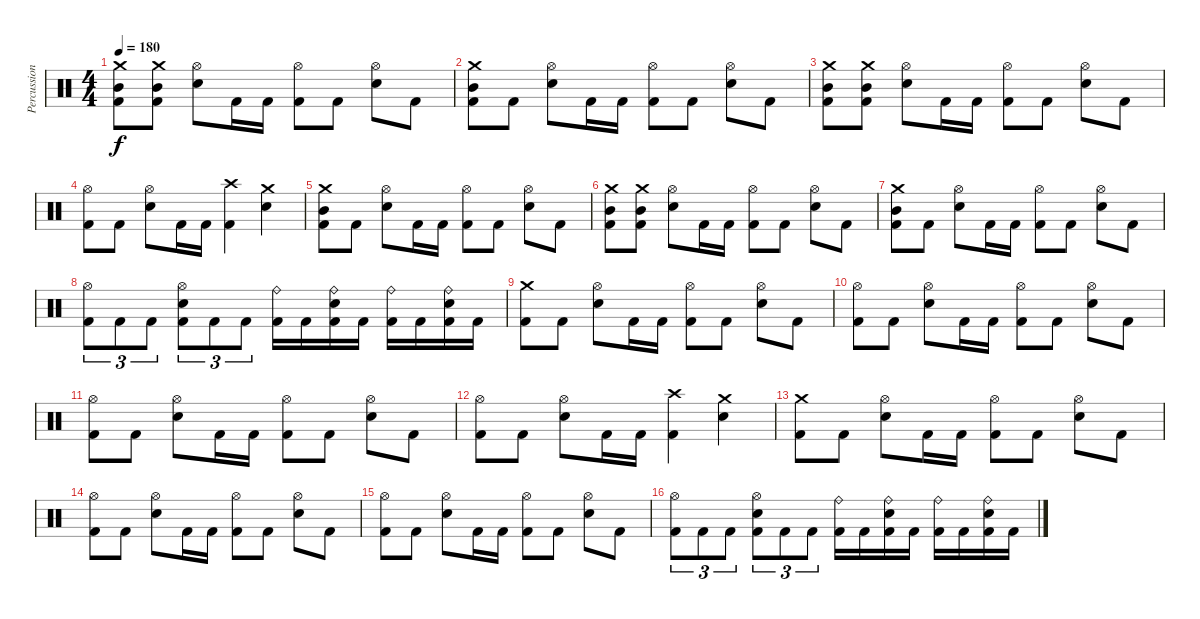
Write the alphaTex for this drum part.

\track ("Percussions" "Percussion") {instrument percussion}
\staff {score}
\articulation defaults
\ts (4 4)
\tempo 180
\clef neutral
\ks c
("Kick (hit) 2" "Mid Tom (hit)" "Crash medium (hit)").8{dy f} ("Kick (hit) 2" "Mid Tom (hit)" "Crash medium (hit)").8 ("Electric Snare (hit)" "Hi-Hat (open)").8 "Kick (hit) 2".16 "Kick (hit) 2".16 ("Kick (hit) 2" "Hi-Hat (open)").8 "Kick (hit) 2".8 ("Electric Snare (hit)" "Hi-Hat (open)").8 "Kick (hit) 2".8 |
("Kick (hit) 2" "Mid Tom (hit)" "Crash medium (hit)").8 "Kick (hit) 2".8 ("Electric Snare (hit)" "Hi-Hat (open)").8 "Kick (hit) 2".16 "Kick (hit) 2".16 ("Kick (hit) 2" "Hi-Hat (open)").8 "Kick (hit) 2".8 ("Electric Snare (hit)" "Hi-Hat (open)").8 "Kick (hit) 2".8 |
("Kick (hit) 2" "Mid Tom (hit)" "Crash medium (hit)").8 ("Kick (hit) 2" "Mid Tom (hit)" "Crash medium (hit)").8 ("Electric Snare (hit)" "Hi-Hat (open)").8 "Kick (hit) 2".16 "Kick (hit) 2".16 ("Kick (hit) 2" "Hi-Hat (open)").8 "Kick (hit) 2".8 ("Electric Snare (hit)" "Hi-Hat (open)").8 "Kick (hit) 2".8 |
("Kick (hit) 2" "Hi-Hat (open)").8 "Kick (hit) 2".8 ("Electric Snare (hit)" "Hi-Hat (open)").8 "Kick (hit) 2".16 "Kick (hit) 2".16 ("Kick (hit) 2" "Crash high (hit)").4 ("Electric Snare (hit)" "Crash medium (hit)").4 |
("Kick (hit) 2" "Mid Tom (hit)" "Crash medium (hit)").8 "Kick (hit) 2".8 ("Electric Snare (hit)" "Hi-Hat (open)").8 "Kick (hit) 2".16 "Kick (hit) 2".16 ("Kick (hit) 2" "Hi-Hat (open)").8 "Kick (hit) 2".8 ("Electric Snare (hit)" "Hi-Hat (open)").8 "Kick (hit) 2".8 |
("Kick (hit) 2" "Mid Tom (hit)" "Crash medium (hit)").8 ("Kick (hit) 2" "Mid Tom (hit)" "Crash medium (hit)").8 ("Electric Snare (hit)" "Hi-Hat (open)").8 "Kick (hit) 2".16 "Kick (hit) 2".16 ("Kick (hit) 2" "Hi-Hat (open)").8 "Kick (hit) 2".8 ("Electric Snare (hit)" "Hi-Hat (open)").8 "Kick (hit) 2".8 |
("Kick (hit) 2" "Mid Tom (hit)" "Crash medium (hit)").8 "Kick (hit) 2".8 ("Electric Snare (hit)" "Hi-Hat (open)").8 "Kick (hit) 2".16 "Kick (hit) 2".16 ("Kick (hit) 2" "Hi-Hat (open)").8 "Kick (hit) 2".8 ("Electric Snare (hit)" "Hi-Hat (open)").8 "Kick (hit) 2".8 |
("Kick (hit) 2" "Hi-Hat (open)").8{tu (3 2)} "Kick (hit) 2".8{tu (3 2)} "Kick (hit) 2".8{tu (3 2)} ("Kick (hit) 2" "Electric Snare (hit)" "Hi-Hat (open)").8{tu (3 2)} "Kick (hit) 2".8{tu (3 2)} "Kick (hit) 2".8{tu (3 2)} ("Kick (hit) 2" "Ride (bell)").16 "Kick (hit) 2".16 ("Kick (hit) 2" "Electric Snare (hit)" "Ride (bell)").16 "Kick (hit) 2".16 ("Kick (hit) 2" "Ride (bell)").16 "Kick (hit) 2".16 ("Kick (hit) 2" "Electric Snare (hit)" "Ride (bell)").16 "Kick (hit) 2".16 |
("Kick (hit) 2" "Crash medium (hit)").8 "Kick (hit) 2".8 ("Electric Snare (hit)" "Hi-Hat (open)").8 "Kick (hit) 2".16 "Kick (hit) 2".16 ("Kick (hit) 2" "Hi-Hat (open)").8 "Kick (hit) 2".8 ("Electric Snare (hit)" "Hi-Hat (open)").8 "Kick (hit) 2".8 |
("Kick (hit) 2" "Hi-Hat (open)").8 "Kick (hit) 2".8 ("Electric Snare (hit)" "Hi-Hat (open)").8 "Kick (hit) 2".16 "Kick (hit) 2".16 ("Kick (hit) 2" "Hi-Hat (open)").8 "Kick (hit) 2".8 ("Electric Snare (hit)" "Hi-Hat (open)").8 "Kick (hit) 2".8 |
("Kick (hit) 2" "Hi-Hat (open)").8 "Kick (hit) 2".8 ("Electric Snare (hit)" "Hi-Hat (open)").8 "Kick (hit) 2".16 "Kick (hit) 2".16 ("Kick (hit) 2" "Hi-Hat (open)").8 "Kick (hit) 2".8 ("Electric Snare (hit)" "Hi-Hat (open)").8 "Kick (hit) 2".8 |
("Kick (hit) 2" "Hi-Hat (open)").8 "Kick (hit) 2".8 ("Electric Snare (hit)" "Hi-Hat (open)").8 "Kick (hit) 2".16 "Kick (hit) 2".16 ("Kick (hit) 2" "Crash high (hit)").4 ("Electric Snare (hit)" "Crash medium (hit)").4 |
("Kick (hit) 2" "Crash medium (hit)").8 "Kick (hit) 2".8 ("Electric Snare (hit)" "Hi-Hat (open)").8 "Kick (hit) 2".16 "Kick (hit) 2".16 ("Kick (hit) 2" "Hi-Hat (open)").8 "Kick (hit) 2".8 ("Electric Snare (hit)" "Hi-Hat (open)").8 "Kick (hit) 2".8 |
("Kick (hit) 2" "Hi-Hat (open)").8 "Kick (hit) 2".8 ("Electric Snare (hit)" "Hi-Hat (open)").8 "Kick (hit) 2".16 "Kick (hit) 2".16 ("Kick (hit) 2" "Hi-Hat (open)").8 "Kick (hit) 2".8 ("Electric Snare (hit)" "Hi-Hat (open)").8 "Kick (hit) 2".8 |
("Kick (hit) 2" "Hi-Hat (open)").8 "Kick (hit) 2".8 ("Electric Snare (hit)" "Hi-Hat (open)").8 "Kick (hit) 2".16 "Kick (hit) 2".16 ("Kick (hit) 2" "Hi-Hat (open)").8 "Kick (hit) 2".8 ("Electric Snare (hit)" "Hi-Hat (open)").8 "Kick (hit) 2".8 |
("Kick (hit) 2" "Hi-Hat (open)").8{tu (3 2)} "Kick (hit) 2".8{tu (3 2)} "Kick (hit) 2".8{tu (3 2)} ("Kick (hit) 2" "Electric Snare (hit)" "Hi-Hat (open)").8{tu (3 2)} "Kick (hit) 2".8{tu (3 2)} "Kick (hit) 2".8{tu (3 2)} ("Kick (hit) 2" "Ride (bell)").16 "Kick (hit) 2".16 ("Kick (hit) 2" "Electric Snare (hit)" "Ride (bell)").16 "Kick (hit) 2".16 ("Kick (hit) 2" "Ride (bell)").16 "Kick (hit) 2".16 ("Kick (hit) 2" "Electric Snare (hit)" "Ride (bell)").16 "Kick (hit) 2".16
